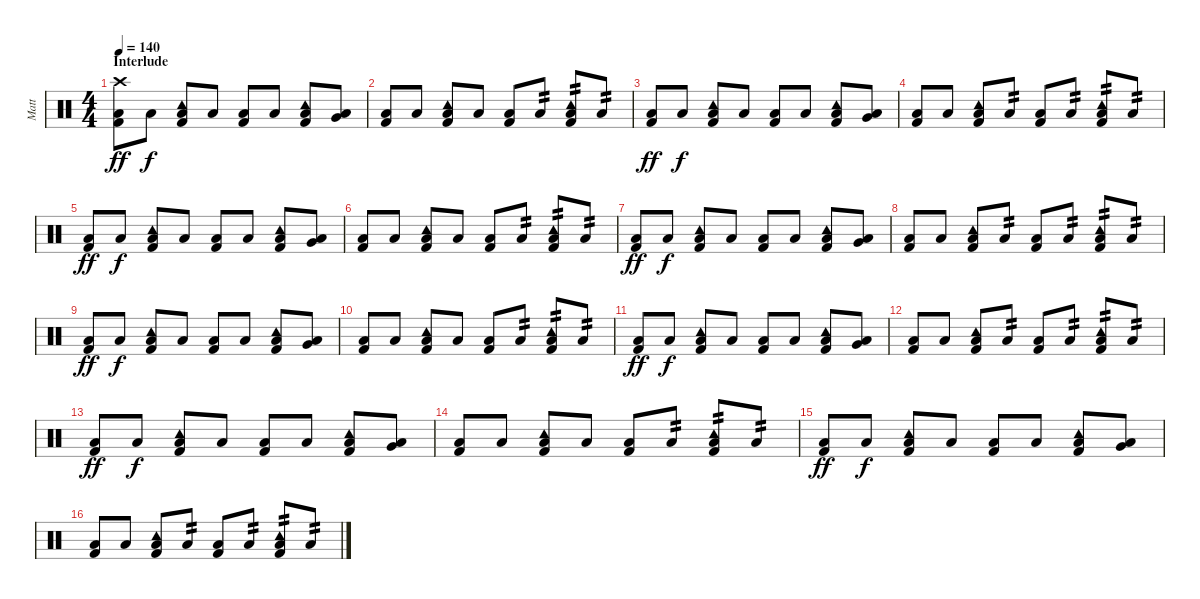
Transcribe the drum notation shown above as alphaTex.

\track ("Matt" "Matt") {instrument percussion}
\staff {score}
\articulation defaults
\ts (4 4)
\section ("" "Interlude")
\tempo 140
\clef neutral
\ks c
("Crash high (hit)" "Kick (hit) 2" "Low Floor Tom (hit)").8{dy ff} "Low Floor Tom (hit)".8{dy f} ("Tambourine (hit)" "Kick (hit) 2" "Low Floor Tom (hit)").8 "Low Floor Tom (hit)".8 ("Kick (hit) 2" "Low Floor Tom (hit)").8 "Low Floor Tom (hit)".8 ("Tambourine (hit)" "Kick (hit) 2" "Low Floor Tom (hit)").8 ("Very Low Tom (hit)" "Low Floor Tom (hit)").8 |
("Kick (hit) 2" "Low Floor Tom (hit)").8 "Low Floor Tom (hit)".8 ("Tambourine (hit)" "Kick (hit) 2" "Low Floor Tom (hit)").8 "Low Floor Tom (hit)".8 ("Kick (hit) 2" "Low Floor Tom (hit)").8 "Low Floor Tom (hit)".8{tp 2} ("Tambourine (hit)" "Kick (hit) 2" "Low Floor Tom (hit)").8{tp 2} "Low Floor Tom (hit)".8{tp 2} |
("Kick (hit) 2" "Low Floor Tom (hit)").8{dy ff} "Low Floor Tom (hit)".8{dy f} ("Tambourine (hit)" "Kick (hit) 2" "Low Floor Tom (hit)").8 "Low Floor Tom (hit)".8 ("Kick (hit) 2" "Low Floor Tom (hit)").8 "Low Floor Tom (hit)".8 ("Tambourine (hit)" "Kick (hit) 2" "Low Floor Tom (hit)").8 ("Very Low Tom (hit)" "Low Floor Tom (hit)").8 |
("Kick (hit) 2" "Low Floor Tom (hit)").8 "Low Floor Tom (hit)".8 ("Tambourine (hit)" "Kick (hit) 2" "Low Floor Tom (hit)").8 "Low Floor Tom (hit)".8{tp 2} ("Kick (hit) 2" "Low Floor Tom (hit)").8 "Low Floor Tom (hit)".8{tp 2} ("Tambourine (hit)" "Kick (hit) 2" "Low Floor Tom (hit)").8{tp 2} "Low Floor Tom (hit)".8{tp 2} |
("Kick (hit) 2" "Low Floor Tom (hit)").8{dy ff} "Low Floor Tom (hit)".8{dy f} ("Tambourine (hit)" "Kick (hit) 2" "Low Floor Tom (hit)").8 "Low Floor Tom (hit)".8 ("Kick (hit) 2" "Low Floor Tom (hit)").8 "Low Floor Tom (hit)".8 ("Tambourine (hit)" "Kick (hit) 2" "Low Floor Tom (hit)").8 ("Very Low Tom (hit)" "Low Floor Tom (hit)").8 |
("Kick (hit) 2" "Low Floor Tom (hit)").8 "Low Floor Tom (hit)".8 ("Tambourine (hit)" "Kick (hit) 2" "Low Floor Tom (hit)").8 "Low Floor Tom (hit)".8 ("Kick (hit) 2" "Low Floor Tom (hit)").8 "Low Floor Tom (hit)".8{tp 2} ("Tambourine (hit)" "Kick (hit) 2" "Low Floor Tom (hit)").8{tp 2} "Low Floor Tom (hit)".8{tp 2} |
("Kick (hit) 2" "Low Floor Tom (hit)").8{dy ff} "Low Floor Tom (hit)".8{dy f} ("Tambourine (hit)" "Kick (hit) 2" "Low Floor Tom (hit)").8 "Low Floor Tom (hit)".8 ("Kick (hit) 2" "Low Floor Tom (hit)").8 "Low Floor Tom (hit)".8 ("Tambourine (hit)" "Kick (hit) 2" "Low Floor Tom (hit)").8 ("Very Low Tom (hit)" "Low Floor Tom (hit)").8 |
("Kick (hit) 2" "Low Floor Tom (hit)").8 "Low Floor Tom (hit)".8 ("Tambourine (hit)" "Kick (hit) 2" "Low Floor Tom (hit)").8 "Low Floor Tom (hit)".8{tp 2} ("Kick (hit) 2" "Low Floor Tom (hit)").8 "Low Floor Tom (hit)".8{tp 2} ("Tambourine (hit)" "Kick (hit) 2" "Low Floor Tom (hit)").8{tp 2} "Low Floor Tom (hit)".8{tp 2} |
("Kick (hit) 2" "Low Floor Tom (hit)").8{dy ff} "Low Floor Tom (hit)".8{dy f} ("Tambourine (hit)" "Kick (hit) 2" "Low Floor Tom (hit)").8 "Low Floor Tom (hit)".8 ("Kick (hit) 2" "Low Floor Tom (hit)").8 "Low Floor Tom (hit)".8 ("Tambourine (hit)" "Kick (hit) 2" "Low Floor Tom (hit)").8 ("Very Low Tom (hit)" "Low Floor Tom (hit)").8 |
("Kick (hit) 2" "Low Floor Tom (hit)").8 "Low Floor Tom (hit)".8 ("Tambourine (hit)" "Kick (hit) 2" "Low Floor Tom (hit)").8 "Low Floor Tom (hit)".8 ("Kick (hit) 2" "Low Floor Tom (hit)").8 "Low Floor Tom (hit)".8{tp 2} ("Tambourine (hit)" "Kick (hit) 2" "Low Floor Tom (hit)").8{tp 2} "Low Floor Tom (hit)".8{tp 2} |
("Kick (hit) 2" "Low Floor Tom (hit)").8{dy ff} "Low Floor Tom (hit)".8{dy f} ("Tambourine (hit)" "Kick (hit) 2" "Low Floor Tom (hit)").8 "Low Floor Tom (hit)".8 ("Kick (hit) 2" "Low Floor Tom (hit)").8 "Low Floor Tom (hit)".8 ("Tambourine (hit)" "Kick (hit) 2" "Low Floor Tom (hit)").8 ("Very Low Tom (hit)" "Low Floor Tom (hit)").8 |
("Kick (hit) 2" "Low Floor Tom (hit)").8 "Low Floor Tom (hit)".8 ("Tambourine (hit)" "Kick (hit) 2" "Low Floor Tom (hit)").8 "Low Floor Tom (hit)".8{tp 2} ("Kick (hit) 2" "Low Floor Tom (hit)").8 "Low Floor Tom (hit)".8{tp 2} ("Tambourine (hit)" "Kick (hit) 2" "Low Floor Tom (hit)").8{tp 2} "Low Floor Tom (hit)".8{tp 2} |
("Kick (hit) 2" "Low Floor Tom (hit)").8{dy ff} "Low Floor Tom (hit)".8{dy f} ("Tambourine (hit)" "Kick (hit) 2" "Low Floor Tom (hit)").8 "Low Floor Tom (hit)".8 ("Kick (hit) 2" "Low Floor Tom (hit)").8 "Low Floor Tom (hit)".8 ("Tambourine (hit)" "Kick (hit) 2" "Low Floor Tom (hit)").8 ("Very Low Tom (hit)" "Low Floor Tom (hit)").8 |
("Kick (hit) 2" "Low Floor Tom (hit)").8 "Low Floor Tom (hit)".8 ("Tambourine (hit)" "Kick (hit) 2" "Low Floor Tom (hit)").8 "Low Floor Tom (hit)".8 ("Kick (hit) 2" "Low Floor Tom (hit)").8 "Low Floor Tom (hit)".8{tp 2} ("Tambourine (hit)" "Kick (hit) 2" "Low Floor Tom (hit)").8{tp 2} "Low Floor Tom (hit)".8{tp 2} |
("Kick (hit) 2" "Low Floor Tom (hit)").8{dy ff} "Low Floor Tom (hit)".8{dy f} ("Tambourine (hit)" "Kick (hit) 2" "Low Floor Tom (hit)").8 "Low Floor Tom (hit)".8 ("Kick (hit) 2" "Low Floor Tom (hit)").8 "Low Floor Tom (hit)".8 ("Tambourine (hit)" "Kick (hit) 2" "Low Floor Tom (hit)").8 ("Very Low Tom (hit)" "Low Floor Tom (hit)").8 |
("Kick (hit) 2" "Low Floor Tom (hit)").8 "Low Floor Tom (hit)".8 ("Tambourine (hit)" "Kick (hit) 2" "Low Floor Tom (hit)").8 "Low Floor Tom (hit)".8{tp 2} ("Kick (hit) 2" "Low Floor Tom (hit)").8 "Low Floor Tom (hit)".8{tp 2} ("Tambourine (hit)" "Kick (hit) 2" "Low Floor Tom (hit)").8{tp 2} "Low Floor Tom (hit)".8{tp 2}
